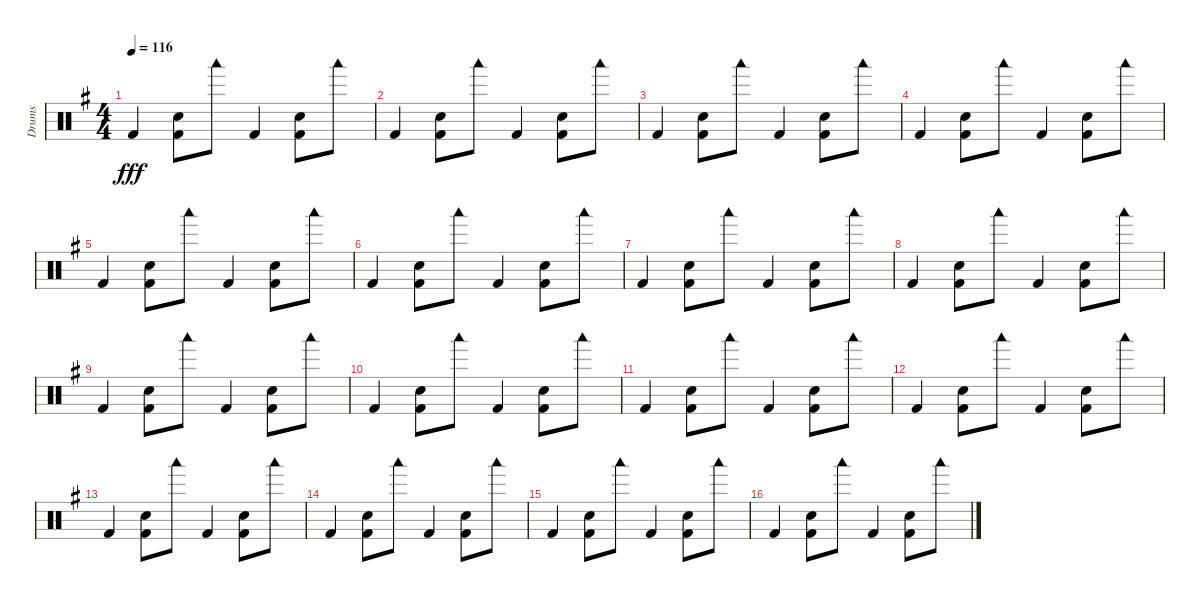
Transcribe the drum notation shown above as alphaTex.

\track ("Drums" "Drums") {instrument percussion}
\staff {score}
\articulation defaults
\ts (4 4)
\tempo 116
\clef neutral
\ks g "Kick (hit) 2".4{dy fff}
("Electric Snare (hit)" "Kick (hit) 2").8 "Woodblock low (hit)".8 "Kick (hit) 2".4 ("Electric Snare (hit)" "Kick (hit) 2").8 "Woodblock low (hit)".8 |
"Kick (hit) 2".4 ("Electric Snare (hit)" "Kick (hit) 2").8 "Woodblock low (hit)".8 "Kick (hit) 2".4 ("Electric Snare (hit)" "Kick (hit) 2").8 "Woodblock low (hit)".8 |
"Kick (hit) 2".4 ("Electric Snare (hit)" "Kick (hit) 2").8 "Woodblock low (hit)".8 "Kick (hit) 2".4 ("Electric Snare (hit)" "Kick (hit) 2").8 "Woodblock low (hit)".8 |
"Kick (hit) 2".4 ("Electric Snare (hit)" "Kick (hit) 2").8 "Woodblock low (hit)".8 "Kick (hit) 2".4 ("Electric Snare (hit)" "Kick (hit) 2").8 "Woodblock low (hit)".8 |
"Kick (hit) 2".4 ("Electric Snare (hit)" "Kick (hit) 2").8 "Woodblock low (hit)".8 "Kick (hit) 2".4 ("Electric Snare (hit)" "Kick (hit) 2").8 "Woodblock low (hit)".8 |
"Kick (hit) 2".4 ("Electric Snare (hit)" "Kick (hit) 2").8 "Woodblock low (hit)".8 "Kick (hit) 2".4 ("Electric Snare (hit)" "Kick (hit) 2").8 "Woodblock low (hit)".8 |
"Kick (hit) 2".4 ("Electric Snare (hit)" "Kick (hit) 2").8 "Woodblock low (hit)".8 "Kick (hit) 2".4 ("Electric Snare (hit)" "Kick (hit) 2").8 "Woodblock low (hit)".8 |
"Kick (hit) 2".4 ("Electric Snare (hit)" "Kick (hit) 2").8 "Woodblock low (hit)".8 "Kick (hit) 2".4 ("Electric Snare (hit)" "Kick (hit) 2").8 "Woodblock low (hit)".8 |
"Kick (hit) 2".4 ("Electric Snare (hit)" "Kick (hit) 2").8 "Woodblock low (hit)".8 "Kick (hit) 2".4 ("Electric Snare (hit)" "Kick (hit) 2").8 "Woodblock low (hit)".8 |
"Kick (hit) 2".4 ("Electric Snare (hit)" "Kick (hit) 2").8 "Woodblock low (hit)".8 "Kick (hit) 2".4 ("Electric Snare (hit)" "Kick (hit) 2").8 "Woodblock low (hit)".8 |
"Kick (hit) 2".4 ("Electric Snare (hit)" "Kick (hit) 2").8 "Woodblock low (hit)".8 "Kick (hit) 2".4 ("Electric Snare (hit)" "Kick (hit) 2").8 "Woodblock low (hit)".8 |
"Kick (hit) 2".4 ("Electric Snare (hit)" "Kick (hit) 2").8 "Woodblock low (hit)".8 "Kick (hit) 2".4 ("Electric Snare (hit)" "Kick (hit) 2").8 "Woodblock low (hit)".8 |
"Kick (hit) 2".4 ("Electric Snare (hit)" "Kick (hit) 2").8 "Woodblock low (hit)".8 "Kick (hit) 2".4 ("Electric Snare (hit)" "Kick (hit) 2").8 "Woodblock low (hit)".8 |
"Kick (hit) 2".4 ("Electric Snare (hit)" "Kick (hit) 2").8 "Woodblock low (hit)".8 "Kick (hit) 2".4 ("Electric Snare (hit)" "Kick (hit) 2").8 "Woodblock low (hit)".8 |
"Kick (hit) 2".4 ("Electric Snare (hit)" "Kick (hit) 2").8 "Woodblock low (hit)".8 "Kick (hit) 2".4 ("Electric Snare (hit)" "Kick (hit) 2").8 "Woodblock low (hit)".8 |
"Kick (hit) 2".4 ("Electric Snare (hit)" "Kick (hit) 2").8 "Woodblock low (hit)".8 "Kick (hit) 2".4 ("Electric Snare (hit)" "Kick (hit) 2").8 "Woodblock low (hit)".8
